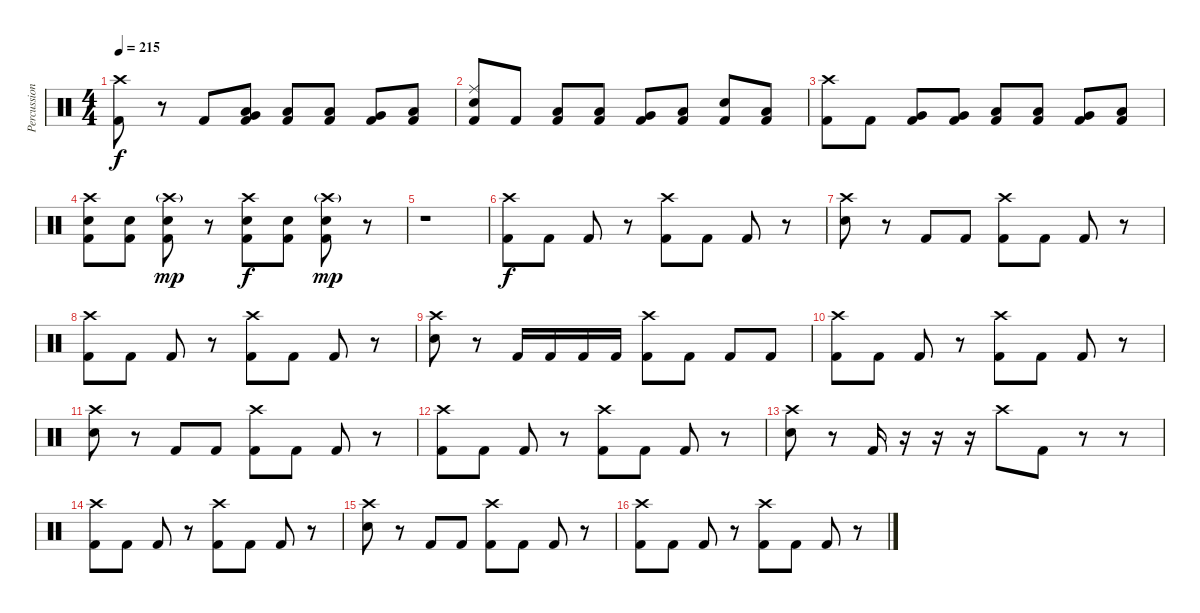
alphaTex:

\track ("Percussion" "Percussion") {instrument percussion}
\staff {score}
\articulation defaults
\ts (4 4)
\tempo 215
\clef neutral
\ks c
("Crash high (hit)" "Kick (hit) 2").8{dy f} r.8 "Kick (hit) 2".8 ("Very Low Tom (hit)" "Low Tom (hit)" "Kick (hit) 2").8 ("Low Tom (hit)" "Kick (hit) 2").8 ("Low Tom (hit)" "Kick (hit) 2").8 ("Very Low Tom (hit)" "Kick (hit) 2").8 ("Low Tom (hit)" "Kick (hit) 2").8 |
("Ride (middle)" "Electric Snare (hit)" "Kick (hit) 2").8 "Kick (hit) 2".8 ("Low Tom (hit)" "Kick (hit) 2").8 ("Low Tom (hit)" "Kick (hit) 2").8 ("Very Low Tom (hit)" "Kick (hit) 2").8 ("Low Tom (hit)" "Kick (hit) 2").8 ("Electric Snare (hit)" "Kick (hit) 2").8 ("Low Tom (hit)" "Kick (hit) 2").8 |
("Crash high (hit)" "Kick (hit) 2").8 "Kick (hit) 2".8 ("Very Low Tom (hit)" "Kick (hit) 2").8 ("Very Low Tom (hit)" "Kick (hit) 2").8 ("Low Tom (hit)" "Kick (hit) 2").8 ("Low Tom (hit)" "Kick (hit) 2").8 ("Very Low Tom (hit)" "Kick (hit) 2").8 ("Low Tom (hit)" "Kick (hit) 2").8 |
("Crash high (hit)" "Electric Snare (hit)" "Kick (hit) 2").8 ("Electric Snare (hit)" "Kick (hit) 2").8 ("Crash high (hit)"{g} "Electric Snare (hit)" "Kick (hit) 2").8{dy mp} r.8 ("Crash high (hit)" "Electric Snare (hit)" "Kick (hit) 2").8{dy f} ("Electric Snare (hit)" "Kick (hit) 2").8 ("Crash high (hit)"{g} "Electric Snare (hit)" "Kick (hit) 2").8{dy mp} r.8 |
r.1 |
("Crash high (hit)" "Kick (hit) 2").8{dy f} "Kick (hit) 2".8 "Kick (hit) 2".8 r.8 ("Crash high (hit)" "Kick (hit) 2").8 "Kick (hit) 2".8 "Kick (hit) 2".8 r.8 |
("Crash high (hit)" "Electric Snare (hit)").8 r.8 "Kick (hit) 2".8 "Kick (hit) 2".8 ("Crash high (hit)" "Kick (hit) 2").8 "Kick (hit) 2".8 "Kick (hit) 2".8 r.8 |
("Crash high (hit)" "Kick (hit) 2").8 "Kick (hit) 2".8 "Kick (hit) 2".8 r.8 ("Crash high (hit)" "Kick (hit) 2").8 "Kick (hit) 2".8 "Kick (hit) 2".8 r.8 |
("Crash high (hit)" "Electric Snare (hit)").8 r.8 "Kick (hit) 2".16 "Kick (hit) 2".16 "Kick (hit) 2".16 "Kick (hit) 2".16 ("Crash high (hit)" "Kick (hit) 2").8 "Kick (hit) 2".8 "Kick (hit) 2".8 "Kick (hit) 2".8 |
("Crash high (hit)" "Kick (hit) 2").8 "Kick (hit) 2".8 "Kick (hit) 2".8 r.8 ("Crash high (hit)" "Kick (hit) 2").8 "Kick (hit) 2".8 "Kick (hit) 2".8 r.8 |
("Crash high (hit)" "Electric Snare (hit)").8 r.8 "Kick (hit) 2".8 "Kick (hit) 2".8 ("Crash high (hit)" "Kick (hit) 2").8 "Kick (hit) 2".8 "Kick (hit) 2".8 r.8 |
("Crash high (hit)" "Kick (hit) 2").8 "Kick (hit) 2".8 "Kick (hit) 2".8 r.8 ("Crash high (hit)" "Kick (hit) 2").8 "Kick (hit) 2".8 "Kick (hit) 2".8 r.8 |
("Crash high (hit)" "Electric Snare (hit)").8 r.8 "Kick (hit) 2".16 r.16 r.16 r.16 "Crash high (hit)".8 "Kick (hit) 2".8 r.8 r.8 |
("Crash high (hit)" "Kick (hit) 2").8 "Kick (hit) 2".8 "Kick (hit) 2".8 r.8 ("Crash high (hit)" "Kick (hit) 2").8 "Kick (hit) 2".8 "Kick (hit) 2".8 r.8 |
("Crash high (hit)" "Electric Snare (hit)").8 r.8 "Kick (hit) 2".8 "Kick (hit) 2".8 ("Crash high (hit)" "Kick (hit) 2").8 "Kick (hit) 2".8 "Kick (hit) 2".8 r.8 |
("Crash high (hit)" "Kick (hit) 2").8 "Kick (hit) 2".8 "Kick (hit) 2".8 r.8 ("Crash high (hit)" "Kick (hit) 2").8 "Kick (hit) 2".8 "Kick (hit) 2".8 r.8
